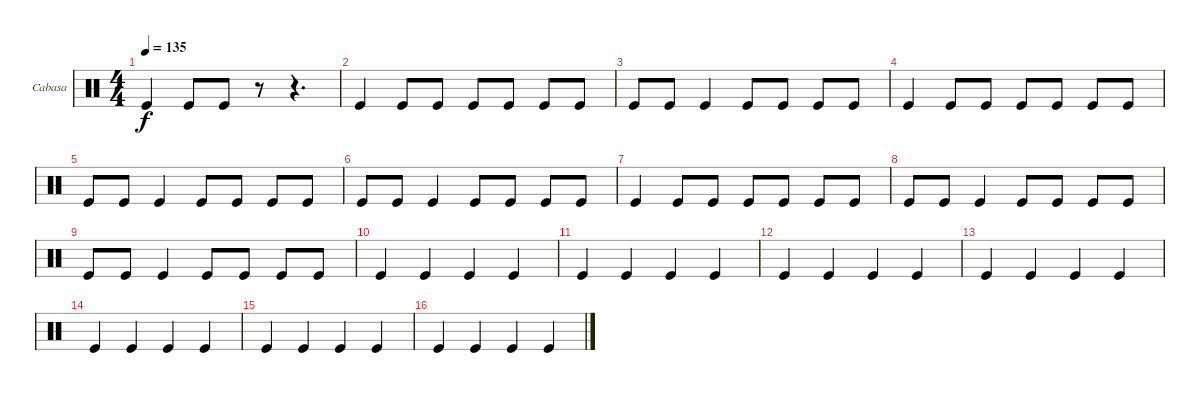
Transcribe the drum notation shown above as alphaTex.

\bracketExtendMode groupsimilarinstruments
\firstSystemTrackNameOrientation horizontal
\otherSystemsTrackNameOrientation horizontal
\track ("Cabasa" "Cabasa") {instrument percussion}
\staff {score}
\articulation defaults
\ts (4 4)
\tempo 135
\clef neutral
\ks c "Kick (hit)".4{dy f} "Kick (hit)".8 "Kick (hit)".8
r.8 r.4{d} |
"Kick (hit)".4 "Kick (hit)".8 "Kick (hit)".8 "Kick (hit)".8 "Kick (hit)".8 "Kick (hit)".8 "Kick (hit)".8 |
"Kick (hit)".8 "Kick (hit)".8 "Kick (hit)".4 "Kick (hit)".8 "Kick (hit)".8 "Kick (hit)".8 "Kick (hit)".8 |
"Kick (hit)".4 "Kick (hit)".8 "Kick (hit)".8 "Kick (hit)".8 "Kick (hit)".8 "Kick (hit)".8 "Kick (hit)".8 |
"Kick (hit)".8 "Kick (hit)".8 "Kick (hit)".4 "Kick (hit)".8 "Kick (hit)".8 "Kick (hit)".8 "Kick (hit)".8 |
"Kick (hit)".8 "Kick (hit)".8 "Kick (hit)".4 "Kick (hit)".8 "Kick (hit)".8 "Kick (hit)".8 "Kick (hit)".8 |
"Kick (hit)".4 "Kick (hit)".8 "Kick (hit)".8 "Kick (hit)".8 "Kick (hit)".8 "Kick (hit)".8 "Kick (hit)".8 |
"Kick (hit)".8 "Kick (hit)".8 "Kick (hit)".4 "Kick (hit)".8 "Kick (hit)".8 "Kick (hit)".8 "Kick (hit)".8 |
"Kick (hit)".8 "Kick (hit)".8 "Kick (hit)".4 "Kick (hit)".8 "Kick (hit)".8 "Kick (hit)".8 "Kick (hit)".8 |
"Kick (hit)".4 "Kick (hit)".4 "Kick (hit)".4 "Kick (hit)".4 |
"Kick (hit)".4 "Kick (hit)".4 "Kick (hit)".4 "Kick (hit)".4 |
"Kick (hit)".4 "Kick (hit)".4 "Kick (hit)".4 "Kick (hit)".4 |
"Kick (hit)".4 "Kick (hit)".4 "Kick (hit)".4 "Kick (hit)".4 |
"Kick (hit)".4 "Kick (hit)".4 "Kick (hit)".4 "Kick (hit)".4 |
"Kick (hit)".4 "Kick (hit)".4 "Kick (hit)".4 "Kick (hit)".4 |
"Kick (hit)".4 "Kick (hit)".4 "Kick (hit)".4 "Kick (hit)".4
